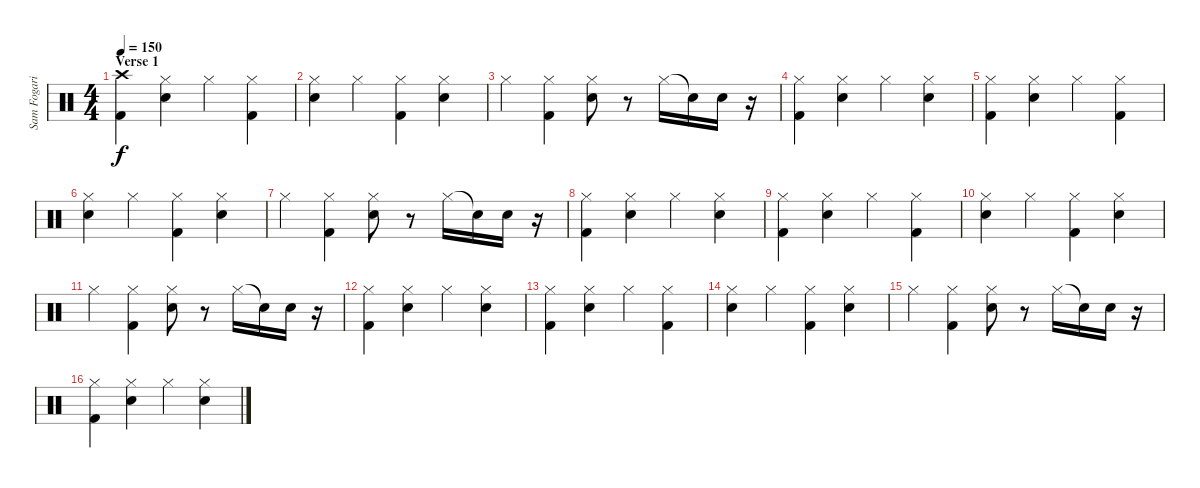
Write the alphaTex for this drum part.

\track ("Sam Fogarino" "Sam Fogari") {instrument percussion}
\staff {score}
\articulation defaults
\ts (4 4)
\section ("" "Verse 1")
\tempo 150
\clef neutral
\ks c
("Crash high (hit)" "Kick (hit) 2").4{dy f} ("Electric Snare (hit)" "Hi-Hat (closed)").4 "Hi-Hat (closed)".4 ("Kick (hit) 2" "Hi-Hat (closed)").4 |
("Electric Snare (hit)" "Hi-Hat (closed)").4 "Hi-Hat (closed)".4 ("Kick (hit) 2" "Hi-Hat (closed)").4 ("Electric Snare (hit)" "Hi-Hat (closed)").4 |
"Hi-Hat (closed)".4 ("Kick (hit) 2" "Hi-Hat (closed)").4 ("Electric Snare (hit)" "Hi-Hat (closed)").8 r.8 "Hi-Hat (closed)".16 "Snare (hit)"{t}.16 "Electric Snare (hit)".16 r.16 |
("Hi-Hat (closed)" "Kick (hit) 2").4 ("Electric Snare (hit)" "Hi-Hat (closed)").4 "Hi-Hat (closed)".4 ("Electric Snare (hit)" "Hi-Hat (closed)").4 |
("Hi-Hat (closed)" "Kick (hit) 2").4 ("Electric Snare (hit)" "Hi-Hat (closed)").4 "Hi-Hat (closed)".4 ("Kick (hit) 2" "Hi-Hat (closed)").4 |
("Electric Snare (hit)" "Hi-Hat (closed)").4 "Hi-Hat (closed)".4 ("Kick (hit) 2" "Hi-Hat (closed)").4 ("Electric Snare (hit)" "Hi-Hat (closed)").4 |
"Hi-Hat (closed)".4 ("Kick (hit) 2" "Hi-Hat (closed)").4 ("Electric Snare (hit)" "Hi-Hat (closed)").8 r.8 "Hi-Hat (closed)".16 "Snare (hit)"{t}.16 "Electric Snare (hit)".16 r.16 |
("Hi-Hat (closed)" "Kick (hit) 2").4 ("Electric Snare (hit)" "Hi-Hat (closed)").4 "Hi-Hat (closed)".4 ("Electric Snare (hit)" "Hi-Hat (closed)").4 |
("Hi-Hat (closed)" "Kick (hit) 2").4 ("Electric Snare (hit)" "Hi-Hat (closed)").4 "Hi-Hat (closed)".4 ("Kick (hit) 2" "Hi-Hat (closed)").4 |
("Electric Snare (hit)" "Hi-Hat (closed)").4 "Hi-Hat (closed)".4 ("Kick (hit) 2" "Hi-Hat (closed)").4 ("Electric Snare (hit)" "Hi-Hat (closed)").4 |
"Hi-Hat (closed)".4 ("Kick (hit) 2" "Hi-Hat (closed)").4 ("Electric Snare (hit)" "Hi-Hat (closed)").8 r.8 "Hi-Hat (closed)".16 "Snare (hit)"{t}.16 "Electric Snare (hit)".16 r.16 |
("Hi-Hat (closed)" "Kick (hit) 2").4 ("Electric Snare (hit)" "Hi-Hat (closed)").4 "Hi-Hat (closed)".4 ("Electric Snare (hit)" "Hi-Hat (closed)").4 |
("Hi-Hat (closed)" "Kick (hit) 2").4 ("Electric Snare (hit)" "Hi-Hat (closed)").4 "Hi-Hat (closed)".4 ("Kick (hit) 2" "Hi-Hat (closed)").4 |
("Electric Snare (hit)" "Hi-Hat (closed)").4 "Hi-Hat (closed)".4 ("Kick (hit) 2" "Hi-Hat (closed)").4 ("Electric Snare (hit)" "Hi-Hat (closed)").4 |
"Hi-Hat (closed)".4 ("Kick (hit) 2" "Hi-Hat (closed)").4 ("Electric Snare (hit)" "Hi-Hat (closed)").8 r.8 "Hi-Hat (closed)".16 "Snare (hit)"{t}.16 "Electric Snare (hit)".16 r.16 |
("Hi-Hat (closed)" "Kick (hit) 2").4 ("Electric Snare (hit)" "Hi-Hat (closed)").4 "Hi-Hat (closed)".4 ("Electric Snare (hit)" "Hi-Hat (closed)").4
